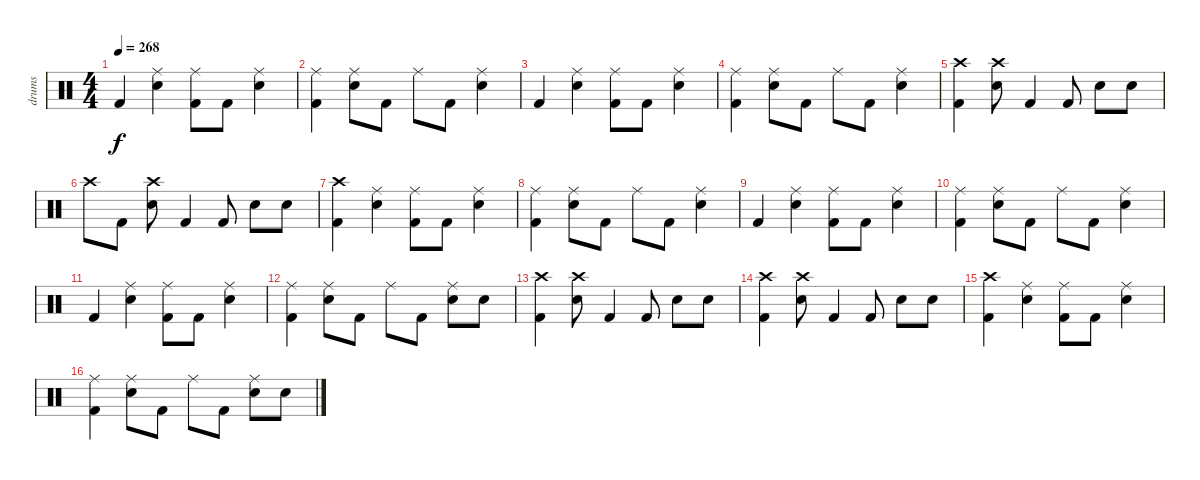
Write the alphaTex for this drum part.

\track ("drums" "drums") {instrument percussion}
\staff {score}
\articulation defaults
\ts (4 4)
\tempo 268
\clef neutral
\ks c "Kick (hit) 2".4{dy f}
("Ride (middle)" "Electric Snare (hit)").4 ("Ride (middle)" "Kick (hit) 2").8 "Kick (hit) 2".8 ("Ride (middle)" "Electric Snare (hit)").4 |
("Ride (middle)" "Kick (hit) 2").4 ("Ride (middle)" "Electric Snare (hit)").8 "Kick (hit) 2".8 "Ride (middle)".8 "Kick (hit) 2".8 ("Ride (middle)" "Electric Snare (hit)").4 |
"Kick (hit) 2".4 ("Ride (middle)" "Electric Snare (hit)").4 ("Ride (middle)" "Kick (hit) 2").8 "Kick (hit) 2".8 ("Ride (middle)" "Electric Snare (hit)").4 |
("Ride (middle)" "Kick (hit) 2").4 ("Ride (middle)" "Electric Snare (hit)").8 "Kick (hit) 2".8 "Ride (middle)".8 "Kick (hit) 2".8 ("Ride (middle)" "Electric Snare (hit)").4 |
("Crash high (hit)" "Kick (hit) 2").4 ("Crash high (hit)" "Electric Snare (hit)").8 "Kick (hit) 2".4 "Kick (hit) 2".8 "Electric Snare (hit)".8 "Electric Snare (hit)".8 |
"Crash high (hit)".8 "Kick (hit) 2".8 ("Crash high (hit)" "Electric Snare (hit)").8 "Kick (hit) 2".4 "Kick (hit) 2".8 "Electric Snare (hit)".8 "Electric Snare (hit)".8 |
("Crash high (hit)" "Kick (hit) 2").4 ("Ride (middle)" "Electric Snare (hit)").4 ("Ride (middle)" "Kick (hit) 2").8 "Kick (hit) 2".8 ("Ride (middle)" "Electric Snare (hit)").4 |
("Ride (middle)" "Kick (hit) 2").4 ("Ride (middle)" "Electric Snare (hit)").8 "Kick (hit) 2".8 "Ride (middle)".8 "Kick (hit) 2".8 ("Ride (middle)" "Electric Snare (hit)").4 |
"Kick (hit) 2".4 ("Ride (middle)" "Electric Snare (hit)").4 ("Ride (middle)" "Kick (hit) 2").8 "Kick (hit) 2".8 ("Ride (middle)" "Electric Snare (hit)").4 |
("Ride (middle)" "Kick (hit) 2").4 ("Ride (middle)" "Electric Snare (hit)").8 "Kick (hit) 2".8 "Ride (middle)".8 "Kick (hit) 2".8 ("Ride (middle)" "Electric Snare (hit)").4 |
"Kick (hit) 2".4 ("Ride (middle)" "Electric Snare (hit)").4 ("Ride (middle)" "Kick (hit) 2").8 "Kick (hit) 2".8 ("Ride (middle)" "Electric Snare (hit)").4 |
("Ride (middle)" "Kick (hit) 2").4 ("Ride (middle)" "Electric Snare (hit)").8 "Kick (hit) 2".8 "Ride (middle)".8 "Kick (hit) 2".8 ("Ride (middle)" "Electric Snare (hit)").8 "Electric Snare (hit)".8 |
("Crash high (hit)" "Kick (hit) 2").4 ("Crash high (hit)" "Electric Snare (hit)").8 "Kick (hit) 2".4 "Kick (hit) 2".8 "Electric Snare (hit)".8 "Electric Snare (hit)".8 |
("Crash high (hit)" "Kick (hit) 2").4 ("Crash high (hit)" "Electric Snare (hit)").8 "Kick (hit) 2".4 "Kick (hit) 2".8 "Electric Snare (hit)".8 "Electric Snare (hit)".8 |
("Crash high (hit)" "Kick (hit) 2").4 ("Ride (middle)" "Electric Snare (hit)").4 ("Ride (middle)" "Kick (hit) 2").8 "Kick (hit) 2".8 ("Ride (middle)" "Electric Snare (hit)").4 |
("Ride (middle)" "Kick (hit) 2").4 ("Ride (middle)" "Electric Snare (hit)").8 "Kick (hit) 2".8 "Ride (middle)".8 "Kick (hit) 2".8 ("Ride (middle)" "Electric Snare (hit)").8 "Electric Snare (hit)".8
